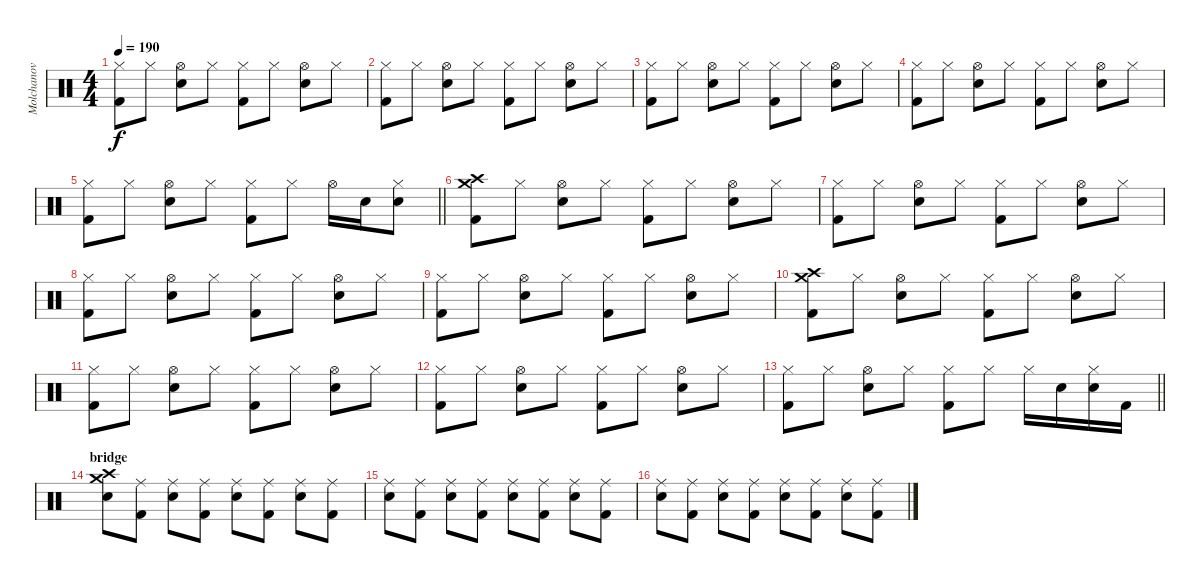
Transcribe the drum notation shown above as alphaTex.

\track ("Molchanov" "Molchanov") {instrument percussion}
\staff {score}
\articulation defaults
\ts (4 4)
\tempo 190
\clef neutral
\ks c
("Hi-Hat (closed)" "Kick (hit) 2").8{dy f} "Hi-Hat (closed)".8 ("Hi-Hat (open)" "Snare (hit) 2").8 "Hi-Hat (closed)".8 ("Hi-Hat (closed)" "Kick (hit) 2").8 "Hi-Hat (closed)".8 ("Hi-Hat (open)" "Snare (hit) 2").8 "Hi-Hat (closed)".8 |
("Hi-Hat (closed)" "Kick (hit) 2").8 "Hi-Hat (closed)".8 ("Hi-Hat (open)" "Snare (hit) 2").8 "Hi-Hat (closed)".8 ("Hi-Hat (closed)" "Kick (hit) 2").8 "Hi-Hat (closed)".8 ("Hi-Hat (open)" "Snare (hit) 2").8 "Hi-Hat (closed)".8 |
("Hi-Hat (closed)" "Kick (hit) 2").8 "Hi-Hat (closed)".8 ("Hi-Hat (open)" "Snare (hit) 2").8 "Hi-Hat (closed)".8 ("Hi-Hat (closed)" "Kick (hit) 2").8 "Hi-Hat (closed)".8 ("Hi-Hat (open)" "Snare (hit) 2").8 "Hi-Hat (closed)".8 |
("Hi-Hat (closed)" "Kick (hit) 2").8 "Hi-Hat (closed)".8 ("Hi-Hat (open)" "Snare (hit) 2").8 "Hi-Hat (closed)".8 ("Hi-Hat (closed)" "Kick (hit) 2").8 "Hi-Hat (closed)".8 ("Hi-Hat (open)" "Snare (hit) 2").8 "Hi-Hat (closed)".8 |
\barLineRight lightlight
("Hi-Hat (closed)" "Kick (hit) 2").8 "Hi-Hat (closed)".8 ("Hi-Hat (open)" "Snare (hit) 2").8 "Hi-Hat (closed)".8 ("Hi-Hat (closed)" "Kick (hit) 2").8 "Hi-Hat (closed)".8 "Hi-Hat (open)".16 "Snare (hit) 2".16 ("Hi-Hat (closed)" "Snare (hit) 2").8 |
("Crash high (hit)" "Crash medium (hit)" "Kick (hit) 2").8 "Hi-Hat (closed)".8 ("Hi-Hat (open)" "Snare (hit) 2").8 "Hi-Hat (closed)".8 ("Hi-Hat (closed)" "Kick (hit) 2").8 "Hi-Hat (closed)".8 ("Hi-Hat (open)" "Snare (hit) 2").8 "Hi-Hat (closed)".8 |
("Hi-Hat (closed)" "Kick (hit) 2").8 "Hi-Hat (closed)".8 ("Hi-Hat (open)" "Snare (hit) 2").8 "Hi-Hat (closed)".8 ("Hi-Hat (closed)" "Kick (hit) 2").8 "Hi-Hat (closed)".8 ("Hi-Hat (open)" "Snare (hit) 2").8 "Hi-Hat (closed)".8 |
("Hi-Hat (closed)" "Kick (hit) 2").8 "Hi-Hat (closed)".8 ("Hi-Hat (open)" "Snare (hit) 2").8 "Hi-Hat (closed)".8 ("Hi-Hat (closed)" "Kick (hit) 2").8 "Hi-Hat (closed)".8 ("Hi-Hat (open)" "Snare (hit) 2").8 "Hi-Hat (closed)".8 |
("Hi-Hat (closed)" "Kick (hit) 2").8 "Hi-Hat (closed)".8 ("Hi-Hat (open)" "Snare (hit) 2").8 "Hi-Hat (closed)".8 ("Hi-Hat (closed)" "Kick (hit) 2").8 "Hi-Hat (closed)".8 ("Hi-Hat (open)" "Snare (hit) 2").8 "Hi-Hat (closed)".8 |
("Crash high (hit)" "Crash medium (hit)" "Kick (hit) 2").8 "Hi-Hat (closed)".8 ("Hi-Hat (open)" "Snare (hit) 2").8 "Hi-Hat (closed)".8 ("Hi-Hat (closed)" "Kick (hit) 2").8 "Hi-Hat (closed)".8 ("Hi-Hat (open)" "Snare (hit) 2").8 "Hi-Hat (closed)".8 |
("Hi-Hat (closed)" "Kick (hit) 2").8 "Hi-Hat (closed)".8 ("Hi-Hat (open)" "Snare (hit) 2").8 "Hi-Hat (closed)".8 ("Hi-Hat (closed)" "Kick (hit) 2").8 "Hi-Hat (closed)".8 ("Hi-Hat (open)" "Snare (hit) 2").8 "Hi-Hat (closed)".8 |
("Hi-Hat (closed)" "Kick (hit) 2").8 "Hi-Hat (closed)".8 ("Hi-Hat (open)" "Snare (hit) 2").8 "Hi-Hat (closed)".8 ("Hi-Hat (closed)" "Kick (hit) 2").8 "Hi-Hat (closed)".8 ("Hi-Hat (open)" "Snare (hit) 2").8 "Hi-Hat (closed)".8 |
\barLineRight lightlight
("Hi-Hat (closed)" "Kick (hit) 2").8 "Hi-Hat (closed)".8 ("Hi-Hat (open)" "Snare (hit) 2").8 "Hi-Hat (closed)".8 ("Hi-Hat (closed)" "Kick (hit) 2").8 "Hi-Hat (closed)".8 "Hi-Hat (closed)".16 "Snare (hit) 2".16 ("Hi-Hat (closed)" "Snare (hit) 2").16 "Kick (hit) 2".16 |
\section ("" "bridge")
("Crash high (hit)" "Snare (hit) 2" "Crash medium (hit)").8 ("Ride (middle)" "Kick (hit) 2").8 ("Ride (middle)" "Snare (hit) 2").8 ("Ride (middle)" "Kick (hit) 2").8 ("Ride (middle)" "Snare (hit) 2").8 ("Ride (middle)" "Kick (hit) 2").8 ("Ride (middle)" "Snare (hit) 2").8 ("Ride (middle)" "Kick (hit) 2").8 |
("Ride (middle)" "Snare (hit) 2").8 ("Ride (middle)" "Kick (hit) 2").8 ("Ride (middle)" "Snare (hit) 2").8 ("Ride (middle)" "Kick (hit) 2").8 ("Ride (middle)" "Snare (hit) 2").8 ("Ride (middle)" "Kick (hit) 2").8 ("Ride (middle)" "Snare (hit) 2").8 ("Ride (middle)" "Kick (hit) 2").8 |
("Ride (middle)" "Snare (hit) 2").8 ("Ride (middle)" "Kick (hit) 2").8 ("Ride (middle)" "Snare (hit) 2").8 ("Ride (middle)" "Kick (hit) 2").8 ("Ride (middle)" "Snare (hit) 2").8 ("Ride (middle)" "Kick (hit) 2").8 ("Ride (middle)" "Snare (hit) 2").8 ("Ride (middle)" "Kick (hit) 2").8
